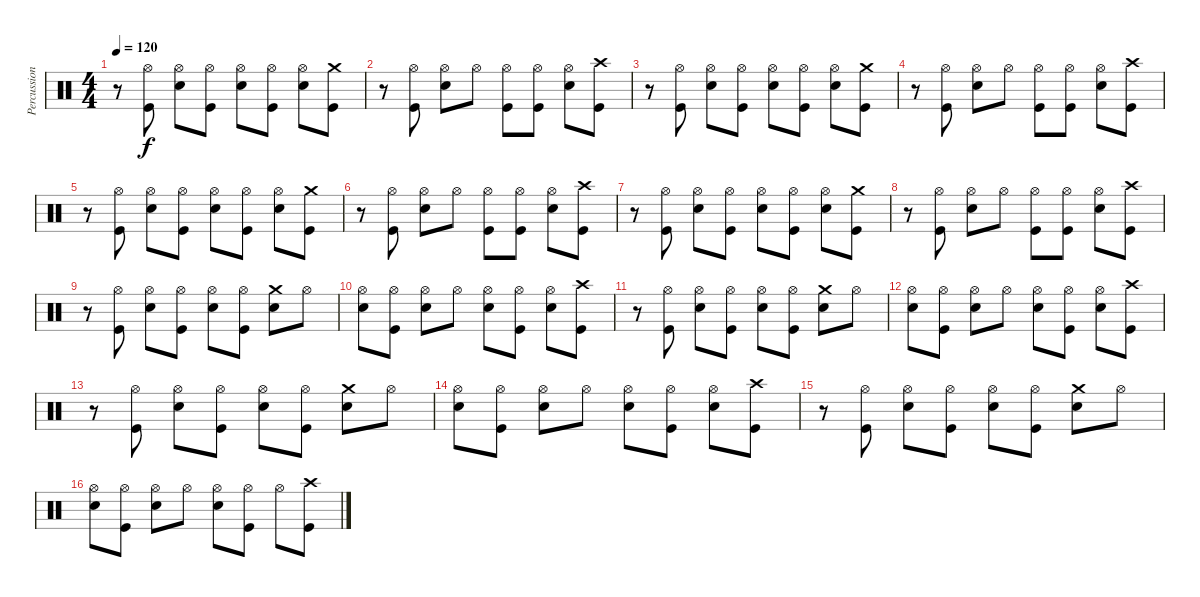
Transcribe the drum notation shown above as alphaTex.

\track ("Percussion" "Percussion") {instrument percussion}
\staff {score}
\articulation defaults
\ts (4 4)
\tempo 120
\clef neutral
\ks c
r.8{dy f} ("Hi-Hat (open)" "Kick (hit)").8 ("Hi-Hat (open)" "Snare (hit) 2").8 ("Hi-Hat (open)" "Kick (hit)").8 ("Hi-Hat (open)" "Snare (hit) 2").8 ("Hi-Hat (open)" "Kick (hit)").8 ("Hi-Hat (open)" "Snare (hit) 2").8 ("Crash medium (hit)" "Kick (hit)").8 |
r.8 ("Hi-Hat (open)" "Kick (hit)").8 ("Hi-Hat (open)" "Snare (hit) 2").8 "Hi-Hat (open)".8 ("Hi-Hat (open)" "Kick (hit)").8 ("Hi-Hat (open)" "Kick (hit)").8 ("Hi-Hat (open)" "Snare (hit) 2").8 ("Crash high (hit)" "Kick (hit)").8 |
r.8 ("Hi-Hat (open)" "Kick (hit)").8 ("Hi-Hat (open)" "Snare (hit) 2").8 ("Hi-Hat (open)" "Kick (hit)").8 ("Hi-Hat (open)" "Snare (hit) 2").8 ("Hi-Hat (open)" "Kick (hit)").8 ("Hi-Hat (open)" "Snare (hit) 2").8 ("Crash medium (hit)" "Kick (hit)").8 |
r.8 ("Hi-Hat (open)" "Kick (hit)").8 ("Hi-Hat (open)" "Snare (hit) 2").8 "Hi-Hat (open)".8 ("Hi-Hat (open)" "Kick (hit)").8 ("Hi-Hat (open)" "Kick (hit)").8 ("Hi-Hat (open)" "Snare (hit) 2").8 ("Crash high (hit)" "Kick (hit)").8 |
r.8 ("Hi-Hat (open)" "Kick (hit)").8 ("Hi-Hat (open)" "Snare (hit) 2").8 ("Hi-Hat (open)" "Kick (hit)").8 ("Hi-Hat (open)" "Snare (hit) 2").8 ("Hi-Hat (open)" "Kick (hit)").8 ("Hi-Hat (open)" "Snare (hit) 2").8 ("Crash medium (hit)" "Kick (hit)").8 |
r.8 ("Hi-Hat (open)" "Kick (hit)").8 ("Hi-Hat (open)" "Snare (hit) 2").8 "Hi-Hat (open)".8 ("Hi-Hat (open)" "Kick (hit)").8 ("Hi-Hat (open)" "Kick (hit)").8 ("Hi-Hat (open)" "Snare (hit) 2").8 ("Crash high (hit)" "Kick (hit)").8 |
r.8 ("Hi-Hat (open)" "Kick (hit)").8 ("Hi-Hat (open)" "Snare (hit) 2").8 ("Hi-Hat (open)" "Kick (hit)").8 ("Hi-Hat (open)" "Snare (hit) 2").8 ("Hi-Hat (open)" "Kick (hit)").8 ("Hi-Hat (open)" "Snare (hit) 2").8 ("Crash medium (hit)" "Kick (hit)").8 |
r.8 ("Hi-Hat (open)" "Kick (hit)").8 ("Hi-Hat (open)" "Snare (hit) 2").8 "Hi-Hat (open)".8 ("Hi-Hat (open)" "Kick (hit)").8 ("Hi-Hat (open)" "Kick (hit)").8 ("Hi-Hat (open)" "Snare (hit) 2").8 ("Crash high (hit)" "Kick (hit)").8 |
r.8 ("Hi-Hat (open)" "Kick (hit)").8 ("Hi-Hat (open)" "Snare (hit) 2").8 ("Hi-Hat (open)" "Kick (hit)").8 ("Hi-Hat (open)" "Snare (hit) 2").8 ("Hi-Hat (open)" "Kick (hit)").8 ("Crash medium (hit)" "Snare (hit) 2").8 "Hi-Hat (open)".8 |
("Hi-Hat (open)" "Snare (hit) 2").8 ("Hi-Hat (open)" "Kick (hit)").8 ("Hi-Hat (open)" "Snare (hit) 2").8 "Hi-Hat (open)".8 ("Hi-Hat (open)" "Snare (hit) 2").8 ("Hi-Hat (open)" "Kick (hit)").8 ("Hi-Hat (open)" "Snare (hit) 2").8 ("Crash high (hit)" "Kick (hit)").8 |
r.8 ("Hi-Hat (open)" "Kick (hit)").8 ("Hi-Hat (open)" "Snare (hit) 2").8 ("Hi-Hat (open)" "Kick (hit)").8 ("Hi-Hat (open)" "Snare (hit) 2").8 ("Hi-Hat (open)" "Kick (hit)").8 ("Crash medium (hit)" "Snare (hit) 2").8 "Hi-Hat (open)".8 |
("Hi-Hat (open)" "Snare (hit) 2").8 ("Hi-Hat (open)" "Kick (hit)").8 ("Hi-Hat (open)" "Snare (hit) 2").8 "Hi-Hat (open)".8 ("Hi-Hat (open)" "Snare (hit) 2").8 ("Hi-Hat (open)" "Kick (hit)").8 ("Hi-Hat (open)" "Snare (hit) 2").8 ("Crash high (hit)" "Kick (hit)").8 |
r.8 ("Hi-Hat (open)" "Kick (hit)").8 ("Hi-Hat (open)" "Snare (hit) 2").8 ("Hi-Hat (open)" "Kick (hit)").8 ("Hi-Hat (open)" "Snare (hit) 2").8 ("Hi-Hat (open)" "Kick (hit)").8 ("Crash medium (hit)" "Snare (hit) 2").8 "Hi-Hat (open)".8 |
("Hi-Hat (open)" "Snare (hit) 2").8 ("Hi-Hat (open)" "Kick (hit)").8 ("Hi-Hat (open)" "Snare (hit) 2").8 "Hi-Hat (open)".8 ("Hi-Hat (open)" "Snare (hit) 2").8 ("Hi-Hat (open)" "Kick (hit)").8 ("Hi-Hat (open)" "Snare (hit) 2").8 ("Crash high (hit)" "Kick (hit)").8 |
r.8 ("Hi-Hat (open)" "Kick (hit)").8 ("Hi-Hat (open)" "Snare (hit) 2").8 ("Hi-Hat (open)" "Kick (hit)").8 ("Hi-Hat (open)" "Snare (hit) 2").8 ("Hi-Hat (open)" "Kick (hit)").8 ("Crash medium (hit)" "Snare (hit) 2").8 "Hi-Hat (open)".8 |
("Hi-Hat (open)" "Snare (hit) 2").8 ("Hi-Hat (open)" "Kick (hit)").8 ("Hi-Hat (open)" "Snare (hit) 2").8 "Hi-Hat (open)".8 ("Hi-Hat (open)" "Snare (hit) 2").8 ("Hi-Hat (open)" "Kick (hit)").8 "Hi-Hat (open)".8 ("Crash high (hit)" "Kick (hit)").8
